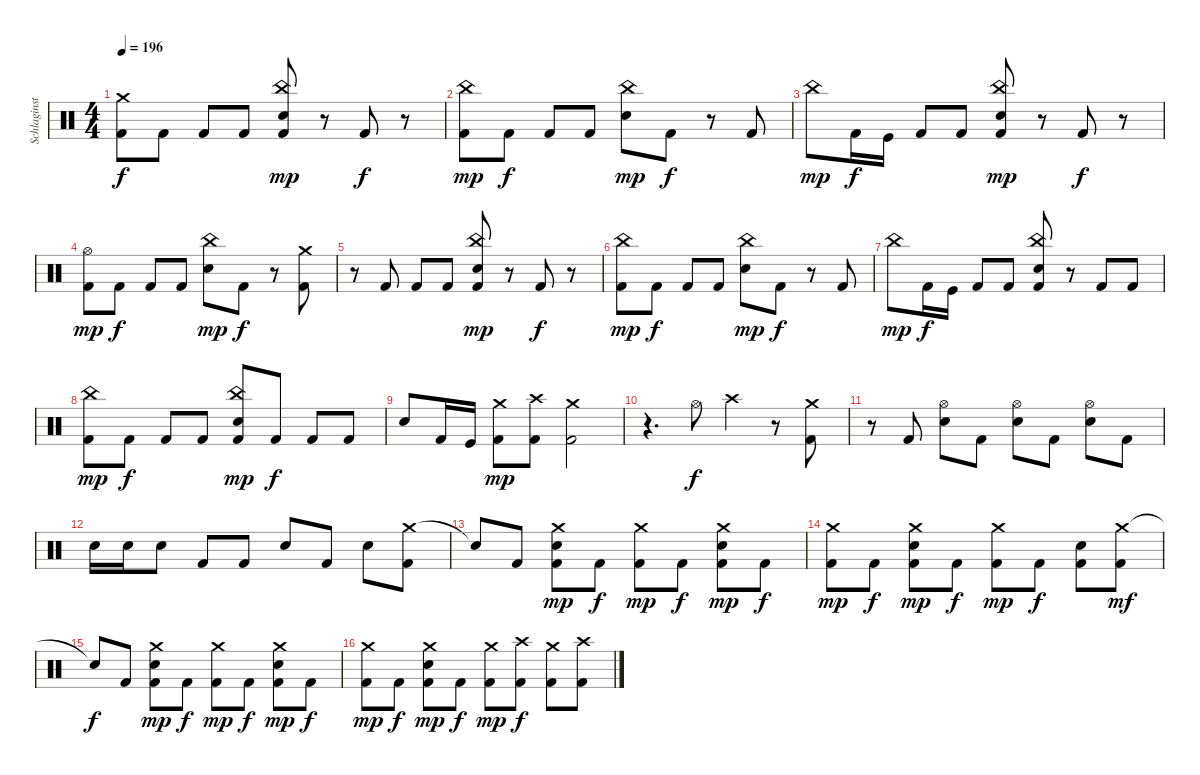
\track ("Schlaginstrumente - Auswahl" "Schlaginst") {instrument percussion}
\staff
\articulation defaults
\ts (4 4)
\tempo 196
\clef neutral
\ks c
("Crash medium (hit)" "Kick (hit) 2").8{dy f} "Kick (hit) 2".8 "Kick (hit) 2".8 "Kick (hit) 2".8 ("China (hit)" "Snare (hit) 2" "Kick (hit) 2").8{dy mp} r.8 "Kick (hit) 2".8{dy f} r.8 |
("China (hit)" "Kick (hit) 2").8{dy mp} "Kick (hit) 2".8{dy f} "Kick (hit) 2".8 "Kick (hit) 2".8 ("China (hit)" "Snare (hit) 2").8{dy mp} "Kick (hit) 2".8{dy f} r.8 "Kick (hit) 2".8 |
"China (hit)".8{dy mp} "Kick (hit) 2".16{dy f} "Kick (hit)".16 "Kick (hit) 2".8 "Kick (hit) 2".8 ("China (hit)" "Snare (hit) 2" "Kick (hit) 2").8{dy mp} r.8 "Kick (hit) 2".8{dy f} r.8 |
("Hi-Hat (open)" "Kick (hit) 2").8{dy mp} "Kick (hit) 2".8{dy f} "Kick (hit) 2".8 "Kick (hit) 2".8 ("China (hit)" "Snare (hit) 2").8{dy mp} "Kick (hit) 2".8{dy f} r.8 ("Crash medium (hit)" "Kick (hit) 2").8 |
r.8 "Kick (hit) 2".8 "Kick (hit) 2".8 "Kick (hit) 2".8 ("China (hit)" "Snare (hit) 2" "Kick (hit) 2").8{dy mp} r.8 "Kick (hit) 2".8{dy f} r.8 |
("China (hit)" "Kick (hit) 2").8{dy mp} "Kick (hit) 2".8{dy f} "Kick (hit) 2".8 "Kick (hit) 2".8 ("China (hit)" "Snare (hit) 2").8{dy mp} "Kick (hit) 2".8{dy f} r.8 "Kick (hit) 2".8 |
"China (hit)".8{dy mp} "Kick (hit) 2".16{dy f} "Kick (hit)".16 "Kick (hit) 2".8 "Kick (hit) 2".8 ("China (hit)" "Snare (hit) 2" "Kick (hit) 2").8 r.8 "Kick (hit) 2".8 "Kick (hit) 2".8 |
("China (hit)" "Kick (hit) 2").8{dy mp} "Kick (hit) 2".8{dy f} "Kick (hit) 2".8 "Kick (hit) 2".8 ("China (hit)" "Snare (hit) 2" "Kick (hit) 2").8{dy mp} "Kick (hit) 2".8{dy f} "Kick (hit) 2".8 "Kick (hit) 2".8 |
"Snare (hit) 2".8 "Kick (hit) 2".16 "Kick (hit)".16 ("Crash medium (hit)" "Kick (hit) 2").8{dy mp} ("Crash high (hit)" "Kick (hit) 2").8 ("Crash medium (hit)" "Kick (hit) 2").2 |
r.4{d} "Hi-Hat (open)".8{dy f} "Crash high (hit)".4 r.8 ("Crash medium (hit)" "Kick (hit) 2").8 |
r.8 "Kick (hit) 2".8 ("Hi-Hat (open)" "Electric Snare (hit)").8 "Kick (hit) 2".8 ("Hi-Hat (open)" "Electric Snare (hit)").8 "Kick (hit) 2".8 ("Hi-Hat (open)" "Electric Snare (hit)").8 "Kick (hit) 2".8 |
"Electric Snare (hit)".16 "Electric Snare (hit)".16 "Electric Snare (hit)".8 "Kick (hit) 2".8 "Kick (hit) 2".8 "Electric Snare (hit)".8 "Kick (hit) 2".8 "Electric Snare (hit)".8 ("Crash medium (hit)" "Kick (hit) 2").8 |
"Snare (hit)"{t}.8 "Kick (hit) 2".8 ("Crash medium (hit)" "Electric Snare (hit)" "Kick (hit) 2").8{dy mp} "Kick (hit) 2".8{dy f} ("Crash medium (hit)" "Kick (hit) 2").8{dy mp} "Kick (hit) 2".8{dy f} ("Crash medium (hit)" "Electric Snare (hit)" "Kick (hit) 2").8{dy mp} "Kick (hit) 2".8{dy f} |
("Crash medium (hit)" "Kick (hit) 2").8{dy mp} "Kick (hit) 2".8{dy f} ("Crash medium (hit)" "Electric Snare (hit)" "Kick (hit) 2").8{dy mp} "Kick (hit) 2".8{dy f} ("Crash medium (hit)" "Kick (hit) 2").8{dy mp} "Kick (hit) 2".8{dy f} ("Electric Snare (hit)" "Kick (hit) 2").8 ("Crash medium (hit)" "Kick (hit) 2").8{dy mf} |
"Snare (hit)"{t}.8{dy f} "Kick (hit) 2".8 ("Crash medium (hit)" "Electric Snare (hit)" "Kick (hit) 2").8{dy mp} "Kick (hit) 2".8{dy f} ("Crash medium (hit)" "Kick (hit) 2").8{dy mp} "Kick (hit) 2".8{dy f} ("Crash medium (hit)" "Electric Snare (hit)" "Kick (hit) 2").8{dy mp} "Kick (hit) 2".8{dy f} |
("Crash medium (hit)" "Kick (hit) 2").8{dy mp} "Kick (hit) 2".8{dy f} ("Crash medium (hit)" "Electric Snare (hit)" "Kick (hit) 2").8{dy mp} "Kick (hit) 2".8{dy f} ("Crash medium (hit)" "Kick (hit) 2").8{dy mp} ("Crash high (hit)" "Kick (hit) 2").8{dy f} ("Crash medium (hit)" "Kick (hit) 2").8 ("Crash high (hit)" "Kick (hit) 2").8
